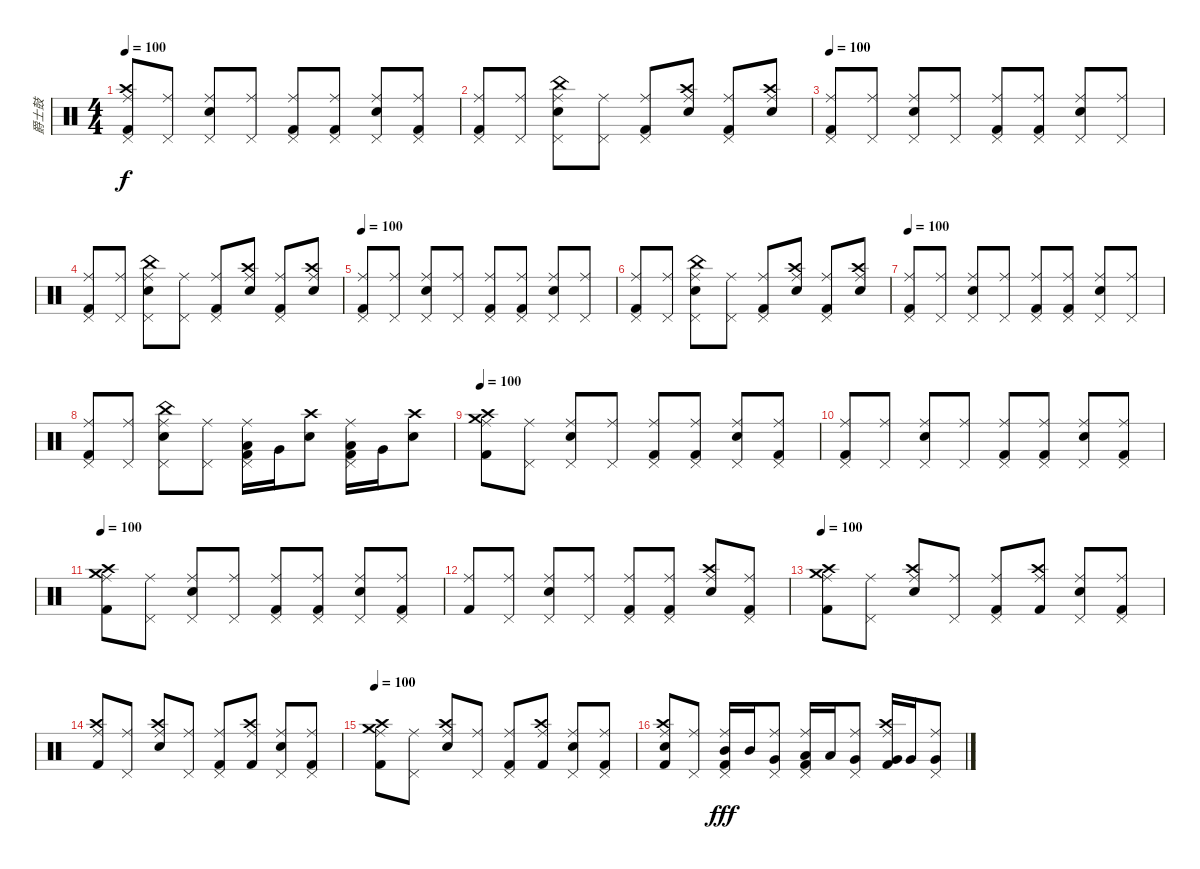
\track ("爵士鼓" "爵士鼓") {instrument percussion}
\staff {score}
\articulation defaults
\ts (4 4)
\tempo 100
\clef neutral
\ks c
("Pedal Hi-Hat (hit)" "Ride (middle)" "Crash high (hit)" "Kick (hit) 2").8{dy f} ("Pedal Hi-Hat (hit)" "Ride (middle)").8 ("Pedal Hi-Hat (hit)" "Ride (middle)" "Snare (hit) 2").8 ("Pedal Hi-Hat (hit)" "Ride (middle)").8 ("Pedal Hi-Hat (hit)" "Ride (middle)" "Kick (hit) 2").8 ("Pedal Hi-Hat (hit)" "Ride (middle)" "Kick (hit) 2").8 ("Pedal Hi-Hat (hit)" "Ride (middle)" "Snare (hit) 2").8 ("Pedal Hi-Hat (hit)" "Ride (middle)" "Kick (hit) 2").8 |
("Pedal Hi-Hat (hit)" "Ride (middle)" "Kick (hit) 2").8 ("Pedal Hi-Hat (hit)" "Ride (middle)").8 ("Pedal Hi-Hat (hit)" "Ride (middle)" "Snare (hit) 2" "China (hit)").8 ("Pedal Hi-Hat (hit)" "Ride (middle)").8 ("Pedal Hi-Hat (hit)" "Ride (middle)" "Kick (hit) 2").8 ("Crash high (hit)" "Ride (middle)" "Snare (hit) 2").8 ("Pedal Hi-Hat (hit)" "Ride (middle)" "Kick (hit) 2").8 ("Crash high (hit)" "Ride (middle)" "Snare (hit) 2").8 |
\tempo 100
("Pedal Hi-Hat (hit)" "Ride (middle)" "Kick (hit) 2").8 ("Pedal Hi-Hat (hit)" "Ride (middle)").8 ("Pedal Hi-Hat (hit)" "Ride (middle)" "Snare (hit) 2").8 ("Pedal Hi-Hat (hit)" "Ride (middle)").8 ("Pedal Hi-Hat (hit)" "Ride (middle)" "Kick (hit) 2").8 ("Pedal Hi-Hat (hit)" "Ride (middle)" "Kick (hit) 2").8 ("Pedal Hi-Hat (hit)" "Ride (middle)" "Snare (hit) 2").8 ("Pedal Hi-Hat (hit)" "Ride (middle)").8 |
("Pedal Hi-Hat (hit)" "Ride (middle)" "Kick (hit) 2").8 ("Pedal Hi-Hat (hit)" "Ride (middle)").8 ("Pedal Hi-Hat (hit)" "Ride (middle)" "Snare (hit) 2" "China (hit)").8 ("Pedal Hi-Hat (hit)" "Ride (middle)").8 ("Pedal Hi-Hat (hit)" "Ride (middle)" "Kick (hit) 2").8 ("Crash high (hit)" "Ride (middle)" "Snare (hit) 2").8 ("Pedal Hi-Hat (hit)" "Ride (middle)" "Kick (hit) 2").8 ("Crash high (hit)" "Ride (middle)" "Snare (hit) 2").8 |
\tempo 100
("Pedal Hi-Hat (hit)" "Ride (middle)" "Kick (hit) 2").8 ("Pedal Hi-Hat (hit)" "Ride (middle)").8 ("Pedal Hi-Hat (hit)" "Ride (middle)" "Snare (hit) 2").8 ("Pedal Hi-Hat (hit)" "Ride (middle)").8 ("Pedal Hi-Hat (hit)" "Ride (middle)" "Kick (hit) 2").8 ("Pedal Hi-Hat (hit)" "Ride (middle)" "Kick (hit) 2").8 ("Pedal Hi-Hat (hit)" "Ride (middle)" "Snare (hit) 2").8 ("Pedal Hi-Hat (hit)" "Ride (middle)").8 |
("Pedal Hi-Hat (hit)" "Ride (middle)" "Kick (hit) 2").8 ("Pedal Hi-Hat (hit)" "Ride (middle)").8 ("Pedal Hi-Hat (hit)" "Ride (middle)" "Snare (hit) 2" "China (hit)").8 ("Pedal Hi-Hat (hit)" "Ride (middle)").8 ("Pedal Hi-Hat (hit)" "Ride (middle)" "Kick (hit) 2").8 ("Crash high (hit)" "Ride (middle)" "Snare (hit) 2").8 ("Pedal Hi-Hat (hit)" "Ride (middle)" "Kick (hit) 2").8 ("Crash high (hit)" "Ride (middle)" "Snare (hit) 2").8 |
\tempo 100
("Pedal Hi-Hat (hit)" "Ride (middle)" "Kick (hit) 2").8 ("Pedal Hi-Hat (hit)" "Ride (middle)").8 ("Pedal Hi-Hat (hit)" "Ride (middle)" "Snare (hit) 2").8 ("Pedal Hi-Hat (hit)" "Ride (middle)").8 ("Pedal Hi-Hat (hit)" "Ride (middle)" "Kick (hit) 2").8 ("Pedal Hi-Hat (hit)" "Ride (middle)" "Kick (hit) 2").8 ("Pedal Hi-Hat (hit)" "Ride (middle)" "Snare (hit) 2").8 ("Pedal Hi-Hat (hit)" "Ride (middle)").8 |
("Pedal Hi-Hat (hit)" "Ride (middle)" "Kick (hit) 2").8 ("Pedal Hi-Hat (hit)" "Ride (middle)").8 ("Pedal Hi-Hat (hit)" "Ride (middle)" "Snare (hit) 2" "China (hit)").8 ("Pedal Hi-Hat (hit)" "Ride (middle)").8 ("Pedal Hi-Hat (hit)" "Ride (middle)" "Low Tom (hit)" "Kick (hit) 2").16 "Very Low Tom (hit)".16 ("Crash high (hit)" "Snare (hit) 2").8 ("Pedal Hi-Hat (hit)" "Ride (middle)" "Low Tom (hit)" "Kick (hit) 2").16 "Very Low Tom (hit)".16 ("Crash high (hit)" "Snare (hit) 2").8 |
\tempo 100
("Crash high (hit)" "Ride (middle)" "Crash medium (hit)" "Kick (hit) 2").8 ("Pedal Hi-Hat (hit)" "Ride (middle)").8 ("Pedal Hi-Hat (hit)" "Ride (middle)" "Snare (hit) 2").8 ("Pedal Hi-Hat (hit)" "Ride (middle)").8 ("Pedal Hi-Hat (hit)" "Ride (middle)" "Kick (hit) 2").8 ("Pedal Hi-Hat (hit)" "Ride (middle)" "Kick (hit) 2").8 ("Pedal Hi-Hat (hit)" "Ride (middle)" "Snare (hit) 2").8 ("Pedal Hi-Hat (hit)" "Ride (middle)" "Kick (hit) 2").8 |
("Pedal Hi-Hat (hit)" "Ride (middle)" "Kick (hit) 2").8 ("Pedal Hi-Hat (hit)" "Ride (middle)").8 ("Pedal Hi-Hat (hit)" "Ride (middle)" "Snare (hit) 2").8 ("Pedal Hi-Hat (hit)" "Ride (middle)").8 ("Pedal Hi-Hat (hit)" "Ride (middle)" "Kick (hit) 2").8 ("Pedal Hi-Hat (hit)" "Ride (middle)" "Kick (hit) 2").8 ("Pedal Hi-Hat (hit)" "Ride (middle)" "Snare (hit) 2").8 ("Pedal Hi-Hat (hit)" "Ride (middle)" "Kick (hit) 2").8 |
\tempo 100
("Crash high (hit)" "Ride (middle)" "Crash medium (hit)" "Kick (hit) 2").8 ("Pedal Hi-Hat (hit)" "Ride (middle)").8 ("Pedal Hi-Hat (hit)" "Ride (middle)" "Snare (hit) 2").8 ("Pedal Hi-Hat (hit)" "Ride (middle)").8 ("Pedal Hi-Hat (hit)" "Ride (middle)" "Kick (hit) 2").8 ("Pedal Hi-Hat (hit)" "Ride (middle)" "Kick (hit) 2").8 ("Pedal Hi-Hat (hit)" "Ride (middle)" "Snare (hit) 2").8 ("Pedal Hi-Hat (hit)" "Ride (middle)" "Kick (hit) 2").8 |
("Ride (middle)" "Kick (hit) 2").8 ("Pedal Hi-Hat (hit)" "Ride (middle)").8 ("Pedal Hi-Hat (hit)" "Ride (middle)" "Snare (hit) 2").8 ("Pedal Hi-Hat (hit)" "Ride (middle)").8 ("Pedal Hi-Hat (hit)" "Ride (middle)" "Kick (hit) 2").8 ("Pedal Hi-Hat (hit)" "Ride (middle)" "Kick (hit) 2").8 ("Crash high (hit)" "Ride (middle)" "Snare (hit) 2").8 ("Pedal Hi-Hat (hit)" "Ride (middle)" "Kick (hit) 2").8 |
\tempo 100
("Crash high (hit)" "Ride (middle)" "Crash medium (hit)" "Kick (hit) 2").8 ("Pedal Hi-Hat (hit)" "Ride (middle)").8 ("Crash high (hit)" "Ride (middle)" "Snare (hit) 2").8 ("Pedal Hi-Hat (hit)" "Ride (middle)").8 ("Pedal Hi-Hat (hit)" "Ride (middle)" "Kick (hit) 2").8 ("Crash high (hit)" "Ride (middle)" "Kick (hit) 2").8 ("Pedal Hi-Hat (hit)" "Ride (middle)" "Snare (hit) 2").8 ("Pedal Hi-Hat (hit)" "Ride (middle)" "Kick (hit) 2").8 |
("Crash high (hit)" "Ride (middle)" "Kick (hit) 2").8 ("Pedal Hi-Hat (hit)" "Ride (middle)").8 ("Crash high (hit)" "Ride (middle)" "Snare (hit) 2").8 ("Pedal Hi-Hat (hit)" "Ride (middle)").8 ("Pedal Hi-Hat (hit)" "Ride (middle)" "Kick (hit) 2").8 ("Crash high (hit)" "Ride (middle)" "Kick (hit) 2").8 ("Pedal Hi-Hat (hit)" "Ride (middle)" "Snare (hit) 2").8 ("Pedal Hi-Hat (hit)" "Ride (middle)" "Kick (hit) 2").8 |
\tempo 100
("Crash high (hit)" "Ride (middle)" "Crash medium (hit)" "Kick (hit) 2").8 ("Pedal Hi-Hat (hit)" "Ride (middle)").8 ("Crash high (hit)" "Ride (middle)" "Snare (hit) 2").8 ("Pedal Hi-Hat (hit)" "Ride (middle)").8 ("Pedal Hi-Hat (hit)" "Ride (middle)" "Kick (hit) 2").8 ("Crash high (hit)" "Ride (middle)" "Kick (hit) 2").8 ("Pedal Hi-Hat (hit)" "Ride (middle)" "Snare (hit) 2").8 ("Pedal Hi-Hat (hit)" "Ride (middle)" "Kick (hit) 2").8 |
("Crash high (hit)" "Ride (middle)" "Snare (hit) 2" "Kick (hit) 2").8 ("Pedal Hi-Hat (hit)" "Ride (middle)").8 ("Pedal Hi-Hat (hit)" "Ride (middle)" "Mid Tom (hit)" "Kick (hit) 2").16{dy fff} "Mid Tom (hit)".16 ("Pedal Hi-Hat (hit)" "Ride (middle)" "Very Low Tom (hit)").8 ("Pedal Hi-Hat (hit)" "Ride (middle)" "Low Tom (hit)" "Kick (hit) 2").16 "Low Tom (hit)".16 ("Pedal Hi-Hat (hit)" "Ride (middle)" "Very Low Tom (hit)").8 ("Crash high (hit)" "Ride (middle)" "Very Low Tom (hit)" "Kick (hit) 2").16 "Very Low Tom (hit)".16 ("Pedal Hi-Hat (hit)" "Ride (middle)" "Very Low Tom (hit)").8
